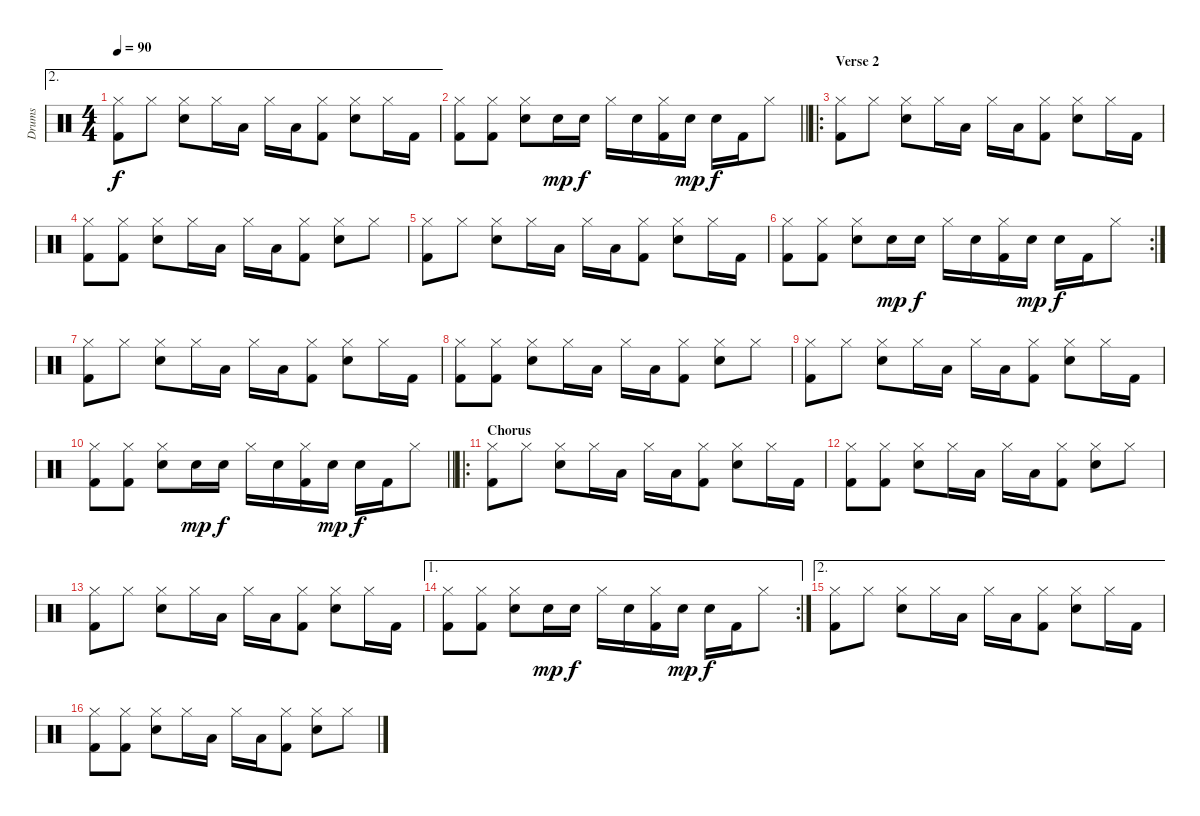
\track ("Drums" "Drums") {instrument percussion}
\staff {score}
\articulation defaults
\ae 2
\ts (4 4)
\tempo 90
\clef neutral
\ks c
("Hi-Hat (closed)" "Kick (hit) 2").8{dy f} "Hi-Hat (closed)".8 ("Hand Clap (hit)" "Hi-Hat (closed)").8 "Hi-Hat (closed)".16 "Low Tom (hit)".16 "Hi-Hat (closed)".16 "Low Tom (hit)".16 ("Hi-Hat (closed)" "Kick (hit) 2").8 ("Hand Clap (hit)" "Hi-Hat (closed)").8 "Hi-Hat (closed)".16 "Kick (hit) 2".16 |
\barLineRight lightlight
("Hi-Hat (closed)" "Kick (hit) 2").8 ("Hi-Hat (closed)" "Kick (hit) 2").8 ("Hand Clap (hit)" "Hi-Hat (closed)").8 "Electric Snare (hit)".16{dy mp} "Electric Snare (hit)".16{dy f} "Hi-Hat (closed)".16 "Electric Snare (hit)".16 ("Hi-Hat (closed)" "Kick (hit) 2").16 "Electric Snare (hit)".16{dy mp} "Electric Snare (hit)".16{dy f} "Kick (hit) 2".16 "Hi-Hat (closed)".8 |
\ro
\section ("" "Verse 2")
("Hi-Hat (closed)" "Kick (hit) 2").8 "Hi-Hat (closed)".8 ("Hand Clap (hit)" "Hi-Hat (closed)").8 "Hi-Hat (closed)".16 "Low Tom (hit)".16 "Hi-Hat (closed)".16 "Low Tom (hit)".16 ("Hi-Hat (closed)" "Kick (hit) 2").8 ("Hand Clap (hit)" "Hi-Hat (closed)").8 "Hi-Hat (closed)".16 "Kick (hit) 2".16 |
("Hi-Hat (closed)" "Kick (hit) 2").8 ("Hi-Hat (closed)" "Kick (hit) 2").8 ("Hand Clap (hit)" "Hi-Hat (closed)").8 "Hi-Hat (closed)".16 "Low Tom (hit)".16 "Hi-Hat (closed)".16 "Low Tom (hit)".16 ("Hi-Hat (closed)" "Kick (hit) 2").8 ("Hand Clap (hit)" "Hi-Hat (closed)").8 "Hi-Hat (closed)".8 |
("Hi-Hat (closed)" "Kick (hit) 2").8 "Hi-Hat (closed)".8 ("Hand Clap (hit)" "Hi-Hat (closed)").8 "Hi-Hat (closed)".16 "Low Tom (hit)".16 "Hi-Hat (closed)".16 "Low Tom (hit)".16 ("Hi-Hat (closed)" "Kick (hit) 2").8 ("Hand Clap (hit)" "Hi-Hat (closed)").8 "Hi-Hat (closed)".16 "Kick (hit) 2".16 |
\rc 2
("Hi-Hat (closed)" "Kick (hit) 2").8 ("Hi-Hat (closed)" "Kick (hit) 2").8 ("Hand Clap (hit)" "Hi-Hat (closed)").8 "Electric Snare (hit)".16{dy mp} "Electric Snare (hit)".16{dy f} "Hi-Hat (closed)".16 "Electric Snare (hit)".16 ("Hi-Hat (closed)" "Kick (hit) 2").16 "Electric Snare (hit)".16{dy mp} "Electric Snare (hit)".16{dy f} "Kick (hit) 2".16 "Hi-Hat (closed)".8 |
("Hi-Hat (closed)" "Kick (hit) 2").8 "Hi-Hat (closed)".8 ("Hand Clap (hit)" "Hi-Hat (closed)").8 "Hi-Hat (closed)".16 "Low Tom (hit)".16 "Hi-Hat (closed)".16 "Low Tom (hit)".16 ("Hi-Hat (closed)" "Kick (hit) 2").8 ("Hand Clap (hit)" "Hi-Hat (closed)").8 "Hi-Hat (closed)".16 "Kick (hit) 2".16 |
("Hi-Hat (closed)" "Kick (hit) 2").8 ("Hi-Hat (closed)" "Kick (hit) 2").8 ("Hand Clap (hit)" "Hi-Hat (closed)").8 "Hi-Hat (closed)".16 "Low Tom (hit)".16 "Hi-Hat (closed)".16 "Low Tom (hit)".16 ("Hi-Hat (closed)" "Kick (hit) 2").8 ("Hand Clap (hit)" "Hi-Hat (closed)").8 "Hi-Hat (closed)".8 |
("Hi-Hat (closed)" "Kick (hit) 2").8 "Hi-Hat (closed)".8 ("Hand Clap (hit)" "Hi-Hat (closed)").8 "Hi-Hat (closed)".16 "Low Tom (hit)".16 "Hi-Hat (closed)".16 "Low Tom (hit)".16 ("Hi-Hat (closed)" "Kick (hit) 2").8 ("Hand Clap (hit)" "Hi-Hat (closed)").8 "Hi-Hat (closed)".16 "Kick (hit) 2".16 |
\barLineRight lightlight
("Hi-Hat (closed)" "Kick (hit) 2").8 ("Hi-Hat (closed)" "Kick (hit) 2").8 ("Hand Clap (hit)" "Hi-Hat (closed)").8 "Electric Snare (hit)".16{dy mp} "Electric Snare (hit)".16{dy f} "Hi-Hat (closed)".16 "Electric Snare (hit)".16 ("Hi-Hat (closed)" "Kick (hit) 2").16 "Electric Snare (hit)".16{dy mp} "Electric Snare (hit)".16{dy f} "Kick (hit) 2".16 "Hi-Hat (closed)".8 |
\ro
\section ("" "Chorus")
("Hi-Hat (closed)" "Kick (hit) 2").8 "Hi-Hat (closed)".8 ("Hand Clap (hit)" "Hi-Hat (closed)").8 "Hi-Hat (closed)".16 "Low Tom (hit)".16 "Hi-Hat (closed)".16 "Low Tom (hit)".16 ("Hi-Hat (closed)" "Kick (hit) 2").8 ("Hand Clap (hit)" "Hi-Hat (closed)").8 "Hi-Hat (closed)".16 "Kick (hit) 2".16 |
("Hi-Hat (closed)" "Kick (hit) 2").8 ("Hi-Hat (closed)" "Kick (hit) 2").8 ("Hand Clap (hit)" "Hi-Hat (closed)").8 "Hi-Hat (closed)".16 "Low Tom (hit)".16 "Hi-Hat (closed)".16 "Low Tom (hit)".16 ("Hi-Hat (closed)" "Kick (hit) 2").8 ("Hand Clap (hit)" "Hi-Hat (closed)").8 "Hi-Hat (closed)".8 |
("Hi-Hat (closed)" "Kick (hit) 2").8 "Hi-Hat (closed)".8 ("Hand Clap (hit)" "Hi-Hat (closed)").8 "Hi-Hat (closed)".16 "Low Tom (hit)".16 "Hi-Hat (closed)".16 "Low Tom (hit)".16 ("Hi-Hat (closed)" "Kick (hit) 2").8 ("Hand Clap (hit)" "Hi-Hat (closed)").8 "Hi-Hat (closed)".16 "Kick (hit) 2".16 |
\ae 1
\rc 2
("Hi-Hat (closed)" "Kick (hit) 2").8 ("Hi-Hat (closed)" "Kick (hit) 2").8 ("Hand Clap (hit)" "Hi-Hat (closed)").8 "Electric Snare (hit)".16{dy mp} "Electric Snare (hit)".16{dy f} "Hi-Hat (closed)".16 "Electric Snare (hit)".16 ("Hi-Hat (closed)" "Kick (hit) 2").16 "Electric Snare (hit)".16{dy mp} "Electric Snare (hit)".16{dy f} "Kick (hit) 2".16 "Hi-Hat (closed)".8 |
\ae 2
("Hi-Hat (closed)" "Kick (hit) 2").8 "Hi-Hat (closed)".8 ("Hand Clap (hit)" "Hi-Hat (closed)").8 "Hi-Hat (closed)".16 "Low Tom (hit)".16 "Hi-Hat (closed)".16 "Low Tom (hit)".16 ("Hi-Hat (closed)" "Kick (hit) 2").8 ("Hand Clap (hit)" "Hi-Hat (closed)").8 "Hi-Hat (closed)".16 "Kick (hit) 2".16 |
("Hi-Hat (closed)" "Kick (hit) 2").8 ("Hi-Hat (closed)" "Kick (hit) 2").8 ("Hand Clap (hit)" "Hi-Hat (closed)").8 "Hi-Hat (closed)".16 "Low Tom (hit)".16 "Hi-Hat (closed)".16 "Low Tom (hit)".16 ("Hi-Hat (closed)" "Kick (hit) 2").8 ("Hand Clap (hit)" "Hi-Hat (closed)").8 "Hi-Hat (closed)".8
